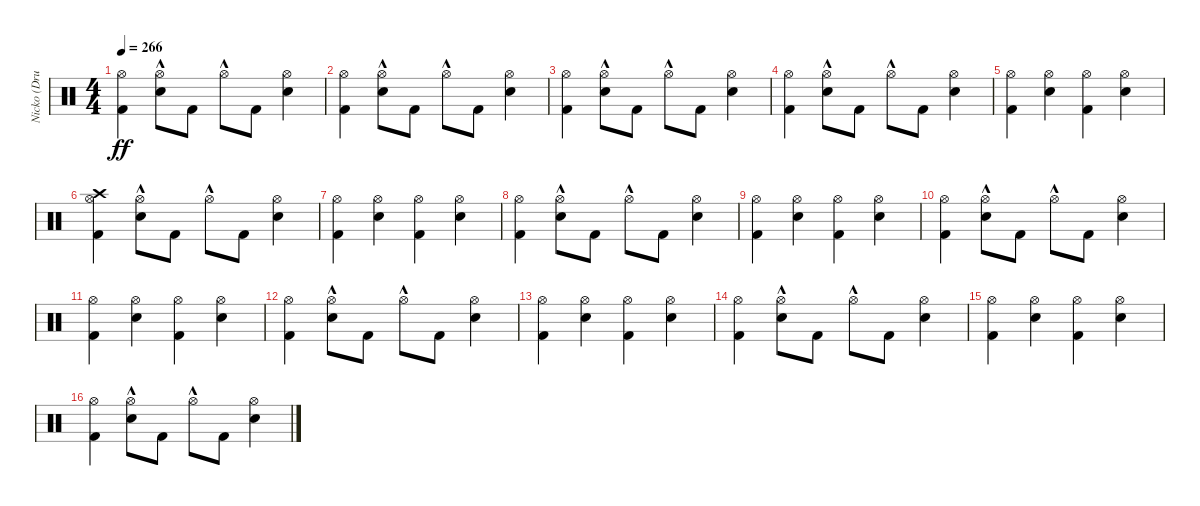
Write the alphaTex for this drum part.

\track ("Nicko (Drums)" "Nicko (Dru") {instrument percussion}
\staff {score}
\articulation defaults
\ts (4 4)
\tempo 266
\clef neutral
\ks c
("Kick (hit) 2" "Hi-Hat (open)").4{dy ff} ("Snare (hit) 2" "Hi-Hat (open)"{hac}).8 "Kick (hit) 2".8 "Hi-Hat (open)"{hac}.8 "Kick (hit) 2".8 ("Snare (hit) 2" "Hi-Hat (open)").4 |
("Kick (hit) 2" "Hi-Hat (open)").4 ("Snare (hit) 2" "Hi-Hat (open)"{hac}).8 "Kick (hit) 2".8 "Hi-Hat (open)"{hac}.8 "Kick (hit) 2".8 ("Snare (hit) 2" "Hi-Hat (open)").4 |
("Kick (hit) 2" "Hi-Hat (open)").4 ("Snare (hit) 2" "Hi-Hat (open)"{hac}).8 "Kick (hit) 2".8 "Hi-Hat (open)"{hac}.8 "Kick (hit) 2".8 ("Snare (hit) 2" "Hi-Hat (open)").4 |
("Kick (hit) 2" "Hi-Hat (open)").4 ("Snare (hit) 2" "Hi-Hat (open)"{hac}).8 "Kick (hit) 2".8 "Hi-Hat (open)"{hac}.8 "Kick (hit) 2".8 ("Snare (hit) 2" "Hi-Hat (open)").4 |
("Kick (hit) 2" "Hi-Hat (open)").4 ("Snare (hit) 2" "Hi-Hat (open)").4 ("Kick (hit) 2" "Hi-Hat (open)").4 ("Snare (hit) 2" "Hi-Hat (open)").4 |
("Kick (hit) 2" "Hi-Hat (open)" "Crash high (hit)").4 ("Snare (hit) 2" "Hi-Hat (open)"{hac}).8 "Kick (hit) 2".8 "Hi-Hat (open)"{hac}.8 "Kick (hit) 2".8 ("Snare (hit) 2" "Hi-Hat (open)").4 |
("Kick (hit) 2" "Hi-Hat (open)").4 ("Snare (hit) 2" "Hi-Hat (open)").4 ("Kick (hit) 2" "Hi-Hat (open)").4 ("Snare (hit) 2" "Hi-Hat (open)").4 |
("Kick (hit) 2" "Hi-Hat (open)").4 ("Snare (hit) 2" "Hi-Hat (open)"{hac}).8 "Kick (hit) 2".8 "Hi-Hat (open)"{hac}.8 "Kick (hit) 2".8 ("Snare (hit) 2" "Hi-Hat (open)").4 |
("Kick (hit) 2" "Hi-Hat (open)").4 ("Snare (hit) 2" "Hi-Hat (open)").4 ("Kick (hit) 2" "Hi-Hat (open)").4 ("Snare (hit) 2" "Hi-Hat (open)").4 |
("Kick (hit) 2" "Hi-Hat (open)").4 ("Snare (hit) 2" "Hi-Hat (open)"{hac}).8 "Kick (hit) 2".8 "Hi-Hat (open)"{hac}.8 "Kick (hit) 2".8 ("Snare (hit) 2" "Hi-Hat (open)").4 |
("Kick (hit) 2" "Hi-Hat (open)").4 ("Snare (hit) 2" "Hi-Hat (open)").4 ("Kick (hit) 2" "Hi-Hat (open)").4 ("Snare (hit) 2" "Hi-Hat (open)").4 |
("Kick (hit) 2" "Hi-Hat (open)").4 ("Snare (hit) 2" "Hi-Hat (open)"{hac}).8 "Kick (hit) 2".8 "Hi-Hat (open)"{hac}.8 "Kick (hit) 2".8 ("Snare (hit) 2" "Hi-Hat (open)").4 |
("Kick (hit) 2" "Hi-Hat (open)").4 ("Snare (hit) 2" "Hi-Hat (open)").4 ("Kick (hit) 2" "Hi-Hat (open)").4 ("Snare (hit) 2" "Hi-Hat (open)").4 |
("Kick (hit) 2" "Hi-Hat (open)").4 ("Snare (hit) 2" "Hi-Hat (open)"{hac}).8 "Kick (hit) 2".8 "Hi-Hat (open)"{hac}.8 "Kick (hit) 2".8 ("Snare (hit) 2" "Hi-Hat (open)").4 |
("Kick (hit) 2" "Hi-Hat (open)").4 ("Snare (hit) 2" "Hi-Hat (open)").4 ("Kick (hit) 2" "Hi-Hat (open)").4 ("Snare (hit) 2" "Hi-Hat (open)").4 |
("Kick (hit) 2" "Hi-Hat (open)").4 ("Snare (hit) 2" "Hi-Hat (open)"{hac}).8 "Kick (hit) 2".8 "Hi-Hat (open)"{hac}.8 "Kick (hit) 2".8 ("Snare (hit) 2" "Hi-Hat (open)").4
